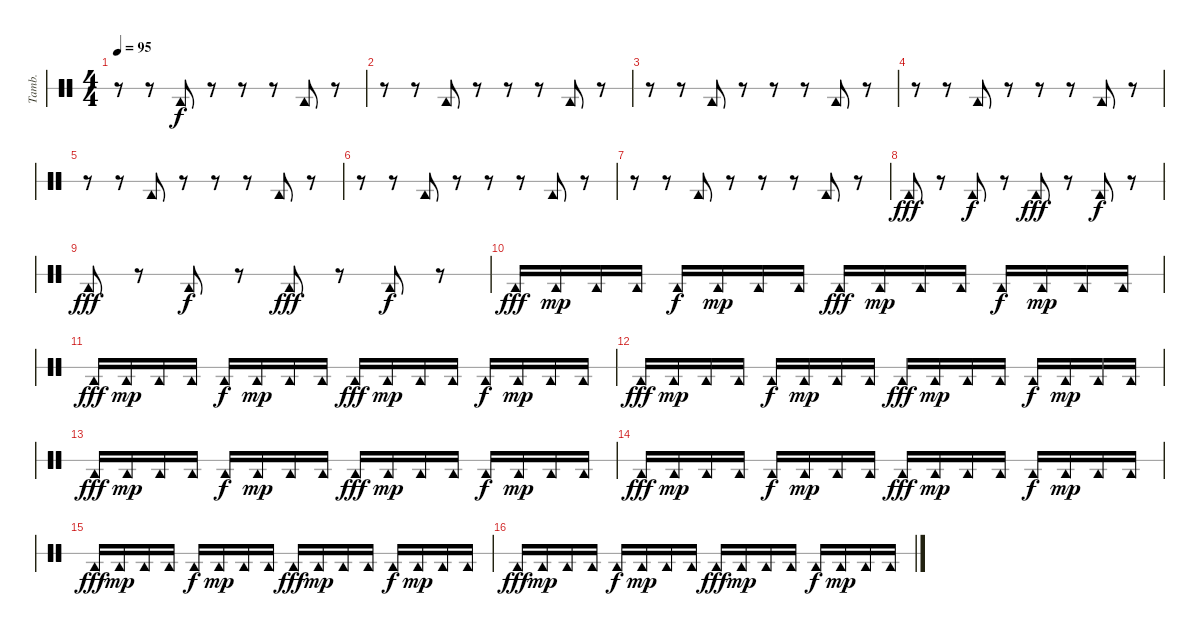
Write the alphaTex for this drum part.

\bracketExtendMode groupsimilarinstruments
\otherSystemsTrackNameOrientation horizontal
\track ("Tambourine" "Tamb.") {instrument percussion}
\staff {score 1}
\articulation defaults
\ts (4 4)
\tempo 95
\clef neutral
\ks c
r.8{dy mp} r.8 "Tambourine (hit)".8{dy f} r.8 r.8 r.8 "Tambourine (hit)".8 r.8 |
r.8 r.8 "Tambourine (hit)".8 r.8 r.8 r.8 "Tambourine (hit)".8 r.8 |
r.8 r.8 "Tambourine (hit)".8 r.8 r.8 r.8 "Tambourine (hit)".8 r.8 |
r.8 r.8 "Tambourine (hit)".8 r.8 r.8 r.8 "Tambourine (hit)".8 r.8 |
r.8 r.8 "Tambourine (hit)".8 r.8 r.8 r.8 "Tambourine (hit)".8 r.8 |
r.8 r.8 "Tambourine (hit)".8 r.8 r.8 r.8 "Tambourine (hit)".8 r.8 |
r.8 r.8 "Tambourine (hit)".8 r.8 r.8 r.8 "Tambourine (hit)".8 r.8 |
"Tambourine (hit)".8{dy fff} r.8 "Tambourine (hit)".8{dy f} r.8 "Tambourine (hit)".8{dy fff} r.8 "Tambourine (hit)".8{dy f} r.8 |
"Tambourine (hit)".8{dy fff} r.8 "Tambourine (hit)".8{dy f} r.8 "Tambourine (hit)".8{dy fff} r.8 "Tambourine (hit)".8{dy f} r.8 |
"Tambourine (hit)".16{dy fff} "Tambourine (hit)".16{dy mp} "Tambourine (hit)".16 "Tambourine (hit)".16 "Tambourine (hit)".16{dy f} "Tambourine (hit)".16{dy mp} "Tambourine (hit)".16 "Tambourine (hit)".16 "Tambourine (hit)".16{dy fff} "Tambourine (hit)".16{dy mp} "Tambourine (hit)".16 "Tambourine (hit)".16 "Tambourine (hit)".16{dy f} "Tambourine (hit)".16{dy mp} "Tambourine (hit)".16 "Tambourine (hit)".16 |
"Tambourine (hit)".16{dy fff} "Tambourine (hit)".16{dy mp} "Tambourine (hit)".16 "Tambourine (hit)".16 "Tambourine (hit)".16{dy f} "Tambourine (hit)".16{dy mp} "Tambourine (hit)".16 "Tambourine (hit)".16 "Tambourine (hit)".16{dy fff} "Tambourine (hit)".16{dy mp} "Tambourine (hit)".16 "Tambourine (hit)".16 "Tambourine (hit)".16{dy f} "Tambourine (hit)".16{dy mp} "Tambourine (hit)".16 "Tambourine (hit)".16 |
"Tambourine (hit)".16{dy fff} "Tambourine (hit)".16{dy mp} "Tambourine (hit)".16 "Tambourine (hit)".16 "Tambourine (hit)".16{dy f} "Tambourine (hit)".16{dy mp} "Tambourine (hit)".16 "Tambourine (hit)".16 "Tambourine (hit)".16{dy fff} "Tambourine (hit)".16{dy mp} "Tambourine (hit)".16 "Tambourine (hit)".16 "Tambourine (hit)".16{dy f} "Tambourine (hit)".16{dy mp} "Tambourine (hit)".16 "Tambourine (hit)".16 |
"Tambourine (hit)".16{dy fff} "Tambourine (hit)".16{dy mp} "Tambourine (hit)".16 "Tambourine (hit)".16 "Tambourine (hit)".16{dy f} "Tambourine (hit)".16{dy mp} "Tambourine (hit)".16 "Tambourine (hit)".16 "Tambourine (hit)".16{dy fff} "Tambourine (hit)".16{dy mp} "Tambourine (hit)".16 "Tambourine (hit)".16 "Tambourine (hit)".16{dy f} "Tambourine (hit)".16{dy mp} "Tambourine (hit)".16 "Tambourine (hit)".16 |
"Tambourine (hit)".16{dy fff} "Tambourine (hit)".16{dy mp} "Tambourine (hit)".16 "Tambourine (hit)".16 "Tambourine (hit)".16{dy f} "Tambourine (hit)".16{dy mp} "Tambourine (hit)".16 "Tambourine (hit)".16 "Tambourine (hit)".16{dy fff} "Tambourine (hit)".16{dy mp} "Tambourine (hit)".16 "Tambourine (hit)".16 "Tambourine (hit)".16{dy f} "Tambourine (hit)".16{dy mp} "Tambourine (hit)".16 "Tambourine (hit)".16 |
"Tambourine (hit)".16{dy fff} "Tambourine (hit)".16{dy mp} "Tambourine (hit)".16 "Tambourine (hit)".16 "Tambourine (hit)".16{dy f} "Tambourine (hit)".16{dy mp} "Tambourine (hit)".16 "Tambourine (hit)".16 "Tambourine (hit)".16{dy fff} "Tambourine (hit)".16{dy mp} "Tambourine (hit)".16 "Tambourine (hit)".16 "Tambourine (hit)".16{dy f} "Tambourine (hit)".16{dy mp} "Tambourine (hit)".16 "Tambourine (hit)".16 |
"Tambourine (hit)".16{dy fff} "Tambourine (hit)".16{dy mp} "Tambourine (hit)".16 "Tambourine (hit)".16 "Tambourine (hit)".16{dy f} "Tambourine (hit)".16{dy mp} "Tambourine (hit)".16 "Tambourine (hit)".16 "Tambourine (hit)".16{dy fff} "Tambourine (hit)".16{dy mp} "Tambourine (hit)".16 "Tambourine (hit)".16 "Tambourine (hit)".16{dy f} "Tambourine (hit)".16{dy mp} "Tambourine (hit)".16 "Tambourine (hit)".16
